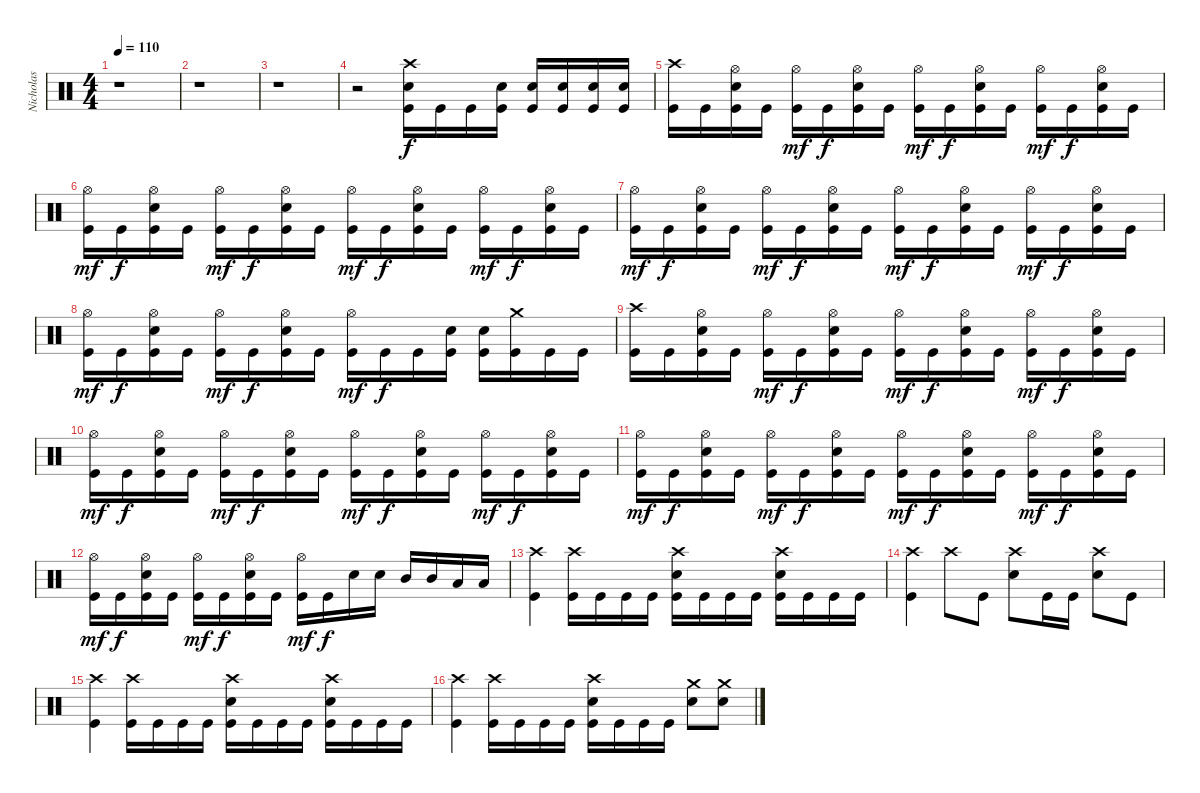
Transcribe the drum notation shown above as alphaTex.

\track ("Nicholas" "Nicholas") {instrument percussion}
\staff {score}
\articulation defaults
\ts (4 4)
\tempo 110
\tempo 176
\tempo 110
\clef neutral
\ks c
r.1{dy f} |
r.1 |
r.1 |
r.2 ("Crash high (hit)" "Electric Snare (hit)" "Kick (hit)").16 "Kick (hit)".16 "Kick (hit)".16 ("Electric Snare (hit)" "Kick (hit)").16 ("Electric Snare (hit)" "Kick (hit)").16 ("Electric Snare (hit)" "Kick (hit)").16 ("Electric Snare (hit)" "Kick (hit)").16 ("Electric Snare (hit)" "Kick (hit)").16 |
("Crash high (hit)" "Kick (hit)").16 "Kick (hit)".16 ("Hi-Hat (open)" "Electric Snare (hit)" "Kick (hit)").16 "Kick (hit)".16 ("Hi-Hat (open)" "Kick (hit)").16{dy mf} "Kick (hit)".16{dy f} ("Hi-Hat (open)" "Electric Snare (hit)" "Kick (hit)").16 "Kick (hit)".16 ("Hi-Hat (open)" "Kick (hit)").16{dy mf} "Kick (hit)".16{dy f} ("Hi-Hat (open)" "Electric Snare (hit)" "Kick (hit)").16 "Kick (hit)".16 ("Hi-Hat (open)" "Kick (hit)").16{dy mf} "Kick (hit)".16{dy f} ("Hi-Hat (open)" "Electric Snare (hit)" "Kick (hit)").16 "Kick (hit)".16 |
("Hi-Hat (open)" "Kick (hit)").16{dy mf} "Kick (hit)".16{dy f} ("Hi-Hat (open)" "Electric Snare (hit)" "Kick (hit)").16 "Kick (hit)".16 ("Hi-Hat (open)" "Kick (hit)").16{dy mf} "Kick (hit)".16{dy f} ("Hi-Hat (open)" "Electric Snare (hit)" "Kick (hit)").16 "Kick (hit)".16 ("Hi-Hat (open)" "Kick (hit)").16{dy mf} "Kick (hit)".16{dy f} ("Hi-Hat (open)" "Electric Snare (hit)" "Kick (hit)").16 "Kick (hit)".16 ("Hi-Hat (open)" "Kick (hit)").16{dy mf} "Kick (hit)".16{dy f} ("Hi-Hat (open)" "Electric Snare (hit)" "Kick (hit)").16 "Kick (hit)".16 |
("Hi-Hat (open)" "Kick (hit)").16{dy mf} "Kick (hit)".16{dy f} ("Hi-Hat (open)" "Electric Snare (hit)" "Kick (hit)").16 "Kick (hit)".16 ("Hi-Hat (open)" "Kick (hit)").16{dy mf} "Kick (hit)".16{dy f} ("Hi-Hat (open)" "Electric Snare (hit)" "Kick (hit)").16 "Kick (hit)".16 ("Hi-Hat (open)" "Kick (hit)").16{dy mf} "Kick (hit)".16{dy f} ("Hi-Hat (open)" "Electric Snare (hit)" "Kick (hit)").16 "Kick (hit)".16 ("Hi-Hat (open)" "Kick (hit)").16{dy mf} "Kick (hit)".16{dy f} ("Hi-Hat (open)" "Electric Snare (hit)" "Kick (hit)").16 "Kick (hit)".16 |
("Hi-Hat (open)" "Kick (hit)").16{dy mf} "Kick (hit)".16{dy f} ("Hi-Hat (open)" "Electric Snare (hit)" "Kick (hit)").16 "Kick (hit)".16 ("Hi-Hat (open)" "Kick (hit)").16{dy mf} "Kick (hit)".16{dy f} ("Hi-Hat (open)" "Electric Snare (hit)" "Kick (hit)").16 "Kick (hit)".16 ("Hi-Hat (open)" "Kick (hit)").16{dy mf} "Kick (hit)".16{dy f} "Kick (hit)".16 ("Electric Snare (hit)" "Kick (hit)").16 ("Electric Snare (hit)" "Kick (hit)").16 ("Crash medium (hit)" "Kick (hit)").16 "Kick (hit)".16 "Kick (hit)".16 |
("Crash high (hit)" "Kick (hit)").16 "Kick (hit)".16 ("Hi-Hat (open)" "Electric Snare (hit)" "Kick (hit)").16 "Kick (hit)".16 ("Hi-Hat (open)" "Kick (hit)").16{dy mf} "Kick (hit)".16{dy f} ("Hi-Hat (open)" "Electric Snare (hit)" "Kick (hit)").16 "Kick (hit)".16 ("Hi-Hat (open)" "Kick (hit)").16{dy mf} "Kick (hit)".16{dy f} ("Hi-Hat (open)" "Electric Snare (hit)" "Kick (hit)").16 "Kick (hit)".16 ("Hi-Hat (open)" "Kick (hit)").16{dy mf} "Kick (hit)".16{dy f} ("Hi-Hat (open)" "Electric Snare (hit)" "Kick (hit)").16 "Kick (hit)".16 |
("Hi-Hat (open)" "Kick (hit)").16{dy mf} "Kick (hit)".16{dy f} ("Hi-Hat (open)" "Electric Snare (hit)" "Kick (hit)").16 "Kick (hit)".16 ("Hi-Hat (open)" "Kick (hit)").16{dy mf} "Kick (hit)".16{dy f} ("Hi-Hat (open)" "Electric Snare (hit)" "Kick (hit)").16 "Kick (hit)".16 ("Hi-Hat (open)" "Kick (hit)").16{dy mf} "Kick (hit)".16{dy f} ("Hi-Hat (open)" "Electric Snare (hit)" "Kick (hit)").16 "Kick (hit)".16 ("Hi-Hat (open)" "Kick (hit)").16{dy mf} "Kick (hit)".16{dy f} ("Hi-Hat (open)" "Electric Snare (hit)" "Kick (hit)").16 "Kick (hit)".16 |
("Hi-Hat (open)" "Kick (hit)").16{dy mf} "Kick (hit)".16{dy f} ("Hi-Hat (open)" "Electric Snare (hit)" "Kick (hit)").16 "Kick (hit)".16 ("Hi-Hat (open)" "Kick (hit)").16{dy mf} "Kick (hit)".16{dy f} ("Hi-Hat (open)" "Electric Snare (hit)" "Kick (hit)").16 "Kick (hit)".16 ("Hi-Hat (open)" "Kick (hit)").16{dy mf} "Kick (hit)".16{dy f} ("Hi-Hat (open)" "Electric Snare (hit)" "Kick (hit)").16 "Kick (hit)".16 ("Hi-Hat (open)" "Kick (hit)").16{dy mf} "Kick (hit)".16{dy f} ("Hi-Hat (open)" "Electric Snare (hit)" "Kick (hit)").16 "Kick (hit)".16 |
("Hi-Hat (open)" "Kick (hit)").16{dy mf} "Kick (hit)".16{dy f} ("Hi-Hat (open)" "Electric Snare (hit)" "Kick (hit)").16 "Kick (hit)".16 ("Hi-Hat (open)" "Kick (hit)").16{dy mf} "Kick (hit)".16{dy f} ("Hi-Hat (open)" "Electric Snare (hit)" "Kick (hit)").16 "Kick (hit)".16 ("Hi-Hat (open)" "Kick (hit)").16{dy mf} "Kick (hit)".16{dy f} "Electric Snare (hit)".16 "Electric Snare (hit)".16 "Mid Tom (hit)".16 "Mid Tom (hit)".16 "Low Tom (hit)".16 "Low Tom (hit)".16 |
("Crash high (hit)" "Kick (hit)").4 ("Crash high (hit)" "Kick (hit)").16 "Kick (hit)".16 "Kick (hit)".16 "Kick (hit)".16 ("Crash high (hit)" "Electric Snare (hit)" "Kick (hit)").16 "Kick (hit)".16 "Kick (hit)".16 "Kick (hit)".16 ("Crash high (hit)" "Electric Snare (hit)" "Kick (hit)").16 "Kick (hit)".16 "Kick (hit)".16 "Kick (hit)".16 |
("Crash high (hit)" "Kick (hit)").4 "Crash high (hit)".8 "Kick (hit)".8 ("Crash high (hit)" "Electric Snare (hit)").8 "Kick (hit)".16 "Kick (hit)".16 ("Crash high (hit)" "Electric Snare (hit)").8 "Kick (hit)".8 |
("Crash high (hit)" "Kick (hit)").4 ("Crash high (hit)" "Kick (hit)").16 "Kick (hit)".16 "Kick (hit)".16 "Kick (hit)".16 ("Crash high (hit)" "Electric Snare (hit)" "Kick (hit)").16 "Kick (hit)".16 "Kick (hit)".16 "Kick (hit)".16 ("Crash high (hit)" "Electric Snare (hit)" "Kick (hit)").16 "Kick (hit)".16 "Kick (hit)".16 "Kick (hit)".16 |
("Crash high (hit)" "Kick (hit)").4 ("Crash high (hit)" "Kick (hit)").16 "Kick (hit)".16 "Kick (hit)".16 "Kick (hit)".16 ("Crash high (hit)" "Electric Snare (hit)" "Kick (hit)").16 "Kick (hit)".16 "Kick (hit)".16 "Kick (hit)".16 ("Crash medium (hit)" "Electric Snare (hit)").8 ("Crash medium (hit)" "Electric Snare (hit)").8
